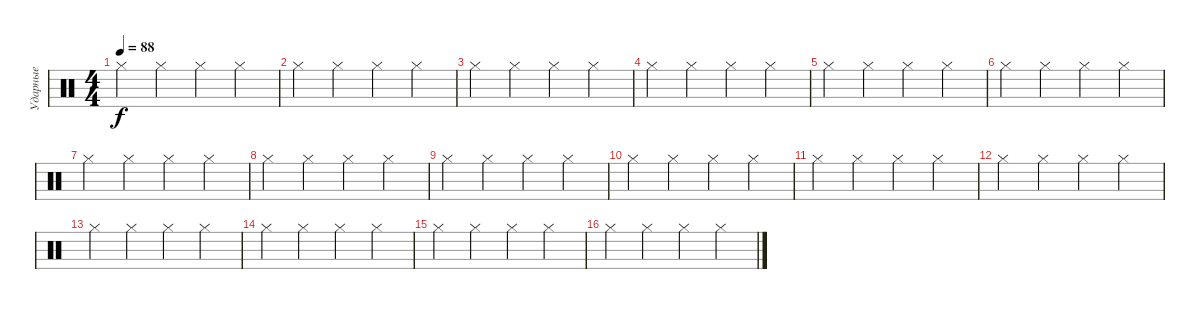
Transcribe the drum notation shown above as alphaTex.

\track ("Ударные" "Ударные") {instrument percussion}
\staff {score}
\articulation defaults
\ts (4 4)
\tempo 88
\clef neutral
\ks c "Hi-Hat (closed)".4{dy f} "Hi-Hat (closed)".4 "Hi-Hat (closed)".4 "Hi-Hat (closed)".4
|
"Hi-Hat (closed)".4 "Hi-Hat (closed)".4 "Hi-Hat (closed)".4 "Hi-Hat (closed)".4 |
"Hi-Hat (closed)".4 "Hi-Hat (closed)".4 "Hi-Hat (closed)".4 "Hi-Hat (closed)".4 |
"Hi-Hat (closed)".4 "Hi-Hat (closed)".4 "Hi-Hat (closed)".4 "Hi-Hat (closed)".4 |
"Hi-Hat (closed)".4 "Hi-Hat (closed)".4 "Hi-Hat (closed)".4 "Hi-Hat (closed)".4 |
"Hi-Hat (closed)".4 "Hi-Hat (closed)".4 "Hi-Hat (closed)".4 "Hi-Hat (closed)".4 |
"Hi-Hat (closed)".4 "Hi-Hat (closed)".4 "Hi-Hat (closed)".4 "Hi-Hat (closed)".4 |
"Hi-Hat (closed)".4 "Hi-Hat (closed)".4 "Hi-Hat (closed)".4 "Hi-Hat (closed)".4 |
"Hi-Hat (closed)".4 "Hi-Hat (closed)".4 "Hi-Hat (closed)".4 "Hi-Hat (closed)".4 |
"Hi-Hat (closed)".4 "Hi-Hat (closed)".4 "Hi-Hat (closed)".4 "Hi-Hat (closed)".4 |
"Hi-Hat (closed)".4 "Hi-Hat (closed)".4 "Hi-Hat (closed)".4 "Hi-Hat (closed)".4 |
"Hi-Hat (closed)".4 "Hi-Hat (closed)".4 "Hi-Hat (closed)".4 "Hi-Hat (closed)".4 |
"Hi-Hat (closed)".4 "Hi-Hat (closed)".4 "Hi-Hat (closed)".4 "Hi-Hat (closed)".4 |
"Hi-Hat (closed)".4 "Hi-Hat (closed)".4 "Hi-Hat (closed)".4 "Hi-Hat (closed)".4 |
"Hi-Hat (closed)".4 "Hi-Hat (closed)".4 "Hi-Hat (closed)".4 "Hi-Hat (closed)".4 |
"Hi-Hat (closed)".4 "Hi-Hat (closed)".4 "Hi-Hat (closed)".4 "Hi-Hat (closed)".4
